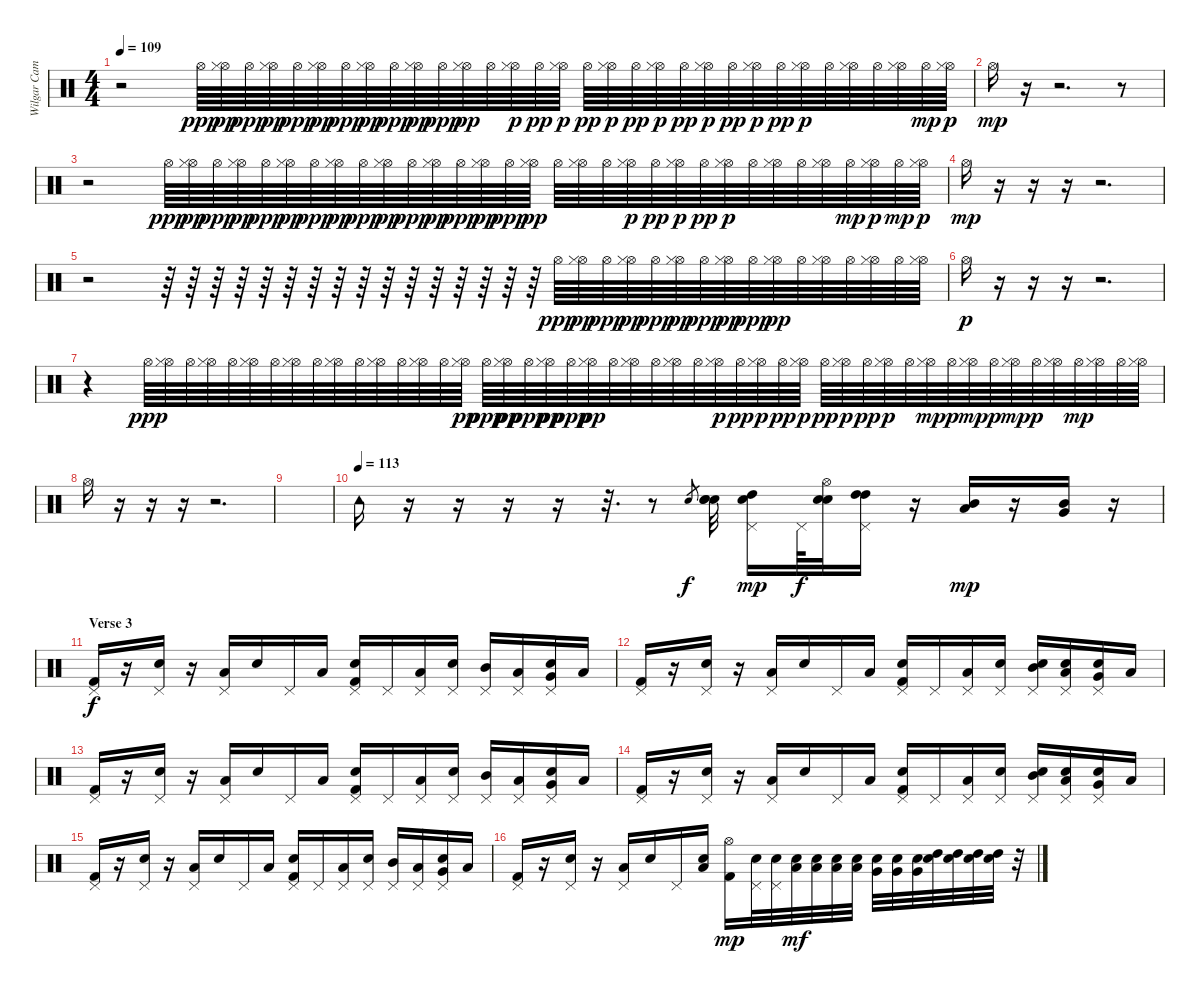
\track ("Wilgar Campbell" "Wilgar Cam") {instrument percussion}
\staff {score}
\articulation defaults
\ts (4 4)
\tempo 109
\clef neutral
\ks c
r.2{dy mf} "Hi-Hat (open)".64{dy ppp} ("Hi-Hat (open)" "Hi-Hat (closed)").64{dy pp} "Hi-Hat (open)".64{dy ppp} ("Hi-Hat (open)" "Hi-Hat (closed)").64{dy pp} "Hi-Hat (open)".64{dy ppp} ("Hi-Hat (open)" "Hi-Hat (closed)").64{dy pp} "Hi-Hat (open)".64{dy ppp} ("Hi-Hat (open)" "Hi-Hat (closed)").64{dy pp} "Hi-Hat (open)".64{dy ppp} ("Hi-Hat (open)" "Hi-Hat (closed)").64{dy pp} "Hi-Hat (open)".64{dy ppp} ("Hi-Hat (open)" "Hi-Hat (closed)").64{dy pp} "Hi-Hat (open)".64 ("Hi-Hat (open)" "Hi-Hat (closed)").64{dy p} "Hi-Hat (open)".64{dy pp} ("Hi-Hat (open)" "Hi-Hat (closed)").64{dy p} "Hi-Hat (open)".64{dy pp} ("Hi-Hat (open)" "Hi-Hat (closed)").64{dy p} "Hi-Hat (open)".64{dy pp} ("Hi-Hat (open)" "Hi-Hat (closed)").64{dy p} "Hi-Hat (open)".64{dy pp} ("Hi-Hat (open)" "Hi-Hat (closed)").64{dy p} "Hi-Hat (open)".64{dy pp} ("Hi-Hat (open)" "Hi-Hat (closed)").64{dy p} "Hi-Hat (open)".64{dy pp} ("Hi-Hat (open)" "Hi-Hat (closed)").64{dy p} "Hi-Hat (open)".64 ("Hi-Hat (open)" "Hi-Hat (closed)").64 "Hi-Hat (open)".64 ("Hi-Hat (open)" "Hi-Hat (closed)").64 "Hi-Hat (open)".64{dy mp} ("Hi-Hat (open)" "Hi-Hat (closed)").64{dy p} |
"Hi-Hat (open)".16{dy mp} r.16 r.2{d} r.8 |
r.2 "Hi-Hat (open)".64{dy ppp} ("Hi-Hat (open)" "Hi-Hat (closed)").64{dy pp} "Hi-Hat (open)".64{dy ppp} ("Hi-Hat (open)" "Hi-Hat (closed)").64{dy pp} "Hi-Hat (open)".64{dy ppp} ("Hi-Hat (open)" "Hi-Hat (closed)").64{dy pp} "Hi-Hat (open)".64{dy ppp} ("Hi-Hat (open)" "Hi-Hat (closed)").64{dy pp} "Hi-Hat (open)".64{dy ppp} ("Hi-Hat (open)" "Hi-Hat (closed)").64{dy pp} "Hi-Hat (open)".64{dy ppp} ("Hi-Hat (open)" "Hi-Hat (closed)").64{dy pp} "Hi-Hat (open)".64{dy ppp} ("Hi-Hat (open)" "Hi-Hat (closed)").64{dy pp} "Hi-Hat (open)".64{dy ppp} ("Hi-Hat (open)" "Hi-Hat (closed)").64{dy pp} "Hi-Hat (open)".64 ("Hi-Hat (open)" "Hi-Hat (closed)").64 "Hi-Hat (open)".64 ("Hi-Hat (open)" "Hi-Hat (closed)").64{dy p} "Hi-Hat (open)".64{dy pp} ("Hi-Hat (open)" "Hi-Hat (closed)").64{dy p} "Hi-Hat (open)".64{dy pp} ("Hi-Hat (open)" "Hi-Hat (closed)").64{dy p} "Hi-Hat (open)".64 ("Hi-Hat (open)" "Hi-Hat (closed)").64 "Hi-Hat (open)".64 ("Hi-Hat (open)" "Hi-Hat (closed)").64 "Hi-Hat (open)".64{dy mp} ("Hi-Hat (open)" "Hi-Hat (closed)").64{dy p} "Hi-Hat (open)".64{dy mp} ("Hi-Hat (open)" "Hi-Hat (closed)").64{dy p} |
"Hi-Hat (open)".16{dy mp} r.16 r.16 r.16 r.2{d} |
r.2 r.64 r.64 r.64 r.64 r.64 r.64 r.64 r.64 r.64 r.64 r.64 r.64 r.64 r.64 r.64 r.64 "Hi-Hat (open)".64{dy ppp} ("Hi-Hat (open)" "Hi-Hat (closed)").64{dy pp} "Hi-Hat (open)".64{dy ppp} ("Hi-Hat (open)" "Hi-Hat (closed)").64{dy pp} "Hi-Hat (open)".64{dy ppp} ("Hi-Hat (open)" "Hi-Hat (closed)").64{dy pp} "Hi-Hat (open)".64{dy ppp} ("Hi-Hat (open)" "Hi-Hat (closed)").64{dy pp} "Hi-Hat (open)".64{dy ppp} ("Hi-Hat (open)" "Hi-Hat (closed)").64{dy pp} "Hi-Hat (open)".64 ("Hi-Hat (open)" "Hi-Hat (closed)").64 "Hi-Hat (open)".64 ("Hi-Hat (open)" "Hi-Hat (closed)").64 "Hi-Hat (open)".64 ("Hi-Hat (open)" "Hi-Hat (closed)").64 |
"Hi-Hat (open)".16{dy p} r.16 r.16 r.16 r.2{d} |
r.4 "Hi-Hat (open)".64{dy ppp} ("Hi-Hat (open)" "Hi-Hat (closed)").64 "Hi-Hat (open)".64 ("Hi-Hat (open)" "Hi-Hat (closed)").64 "Hi-Hat (open)".64 ("Hi-Hat (open)" "Hi-Hat (closed)").64 "Hi-Hat (open)".64 ("Hi-Hat (open)" "Hi-Hat (closed)").64 "Hi-Hat (open)".64 ("Hi-Hat (open)" "Hi-Hat (closed)").64 "Hi-Hat (open)".64 ("Hi-Hat (open)" "Hi-Hat (closed)").64 "Hi-Hat (open)".64 ("Hi-Hat (open)" "Hi-Hat (closed)").64 "Hi-Hat (open)".64 ("Hi-Hat (open)" "Hi-Hat (closed)").64{dy pp} "Hi-Hat (open)".64{dy ppp} ("Hi-Hat (open)" "Hi-Hat (closed)").64{dy pp} "Hi-Hat (open)".64{dy ppp} ("Hi-Hat (open)" "Hi-Hat (closed)").64{dy pp} "Hi-Hat (open)".64{dy ppp} ("Hi-Hat (open)" "Hi-Hat (closed)").64{dy pp} "Hi-Hat (open)".64 ("Hi-Hat (open)" "Hi-Hat (closed)").64 "Hi-Hat (open)".64 ("Hi-Hat (open)" "Hi-Hat (closed)").64 "Hi-Hat (open)".64 ("Hi-Hat (open)" "Hi-Hat (closed)").64{dy p} "Hi-Hat (open)".64{dy pp} ("Hi-Hat (open)" "Hi-Hat (closed)").64{dy p} "Hi-Hat (open)".64{dy pp} ("Hi-Hat (open)" "Hi-Hat (closed)").64{dy p} "Hi-Hat (open)".64{dy pp} ("Hi-Hat (open)" "Hi-Hat (closed)").64{dy p} "Hi-Hat (open)".64{dy pp} ("Hi-Hat (open)" "Hi-Hat (closed)").64{dy p} "Hi-Hat (open)".64 ("Hi-Hat (open)" "Hi-Hat (closed)").64{dy mp} "Hi-Hat (open)".64{dy p} ("Hi-Hat (open)" "Hi-Hat (closed)").64{dy mp} "Hi-Hat (open)".64{dy p} ("Hi-Hat (open)" "Hi-Hat (closed)").64{dy mp} "Hi-Hat (open)".64{dy p} ("Hi-Hat (open)" "Hi-Hat (closed)").64 "Hi-Hat (open)".64{dy mp} ("Hi-Hat (open)" "Hi-Hat (closed)").64 "Hi-Hat (open)".64 ("Hi-Hat (open)" "Hi-Hat (closed)").64 |
"Hi-Hat (open)".16 r.16 r.16 r.16 r.2{d} |
|
\tempo (113)
"Tambourine (hit)".16 r.16 r.16 r.16 r.16 r.32{d} r.8 "Snare (hit) 2".8{gr dy f} ("Snare (hit) 2" "Snare (hit) 2" "Snare (hit) 2").32 ("Snare (hit) 2" "High Tom (hit)" "Pedal Hi-Hat (hit)").16{dy mp} "Pedal Hi-Hat (hit)".64{dy f} ("Snare (hit) 2" "Snare (hit) 2" "Hi-Hat (open)").32 ("High Tom (hit)" "High Tom (hit)" "Pedal Hi-Hat (hit)").16 r.16 ("Low Tom (hit)" "Mid Tom (hit)").16{dy mp} r.16 ("Very Low Tom (hit)" "Mid Tom (hit)").16 r.16 |
\section ("" "Verse 3")
("Pedal Hi-Hat (hit)" "Kick (hit) 2").16{dy f} r.16 ("Snare (hit) 2" "Pedal Hi-Hat (hit)").16 r.16 ("Low Tom (hit)" "Pedal Hi-Hat (hit)").16 "Snare (hit) 2".16 "Pedal Hi-Hat (hit)".16 "Low Tom (hit)".16 ("Snare (hit) 2" "Pedal Hi-Hat (hit)" "Kick (hit) 2").16 "Pedal Hi-Hat (hit)".16 ("Low Tom (hit)" "Pedal Hi-Hat (hit)").16 ("Snare (hit) 2" "Pedal Hi-Hat (hit)").16 ("Mid Tom (hit)" "Pedal Hi-Hat (hit)").16 ("Low Tom (hit)" "Pedal Hi-Hat (hit)").16 ("Very Low Tom (hit)" "Snare (hit) 2" "Pedal Hi-Hat (hit)").16 "Low Tom (hit)".16 |
("Pedal Hi-Hat (hit)" "Kick (hit) 2").16 r.16 ("Snare (hit) 2" "Pedal Hi-Hat (hit)").16 r.16 ("Low Tom (hit)" "Pedal Hi-Hat (hit)").16 "Snare (hit) 2".16 "Pedal Hi-Hat (hit)".16 "Low Tom (hit)".16 ("Snare (hit) 2" "Pedal Hi-Hat (hit)" "Kick (hit) 2").16 "Pedal Hi-Hat (hit)".16 ("Low Tom (hit)" "Pedal Hi-Hat (hit)").16 ("Snare (hit) 2" "Pedal Hi-Hat (hit)").16 ("Mid Tom (hit)" "Electric Snare (hit)" "Pedal Hi-Hat (hit)").16 ("Low Tom (hit)" "Electric Snare (hit)" "Pedal Hi-Hat (hit)").16 ("Very Low Tom (hit)" "Snare (hit) 2" "Pedal Hi-Hat (hit)").16 "Low Tom (hit)".16 |
("Pedal Hi-Hat (hit)" "Kick (hit) 2").16 r.16 ("Snare (hit) 2" "Pedal Hi-Hat (hit)").16 r.16 ("Low Tom (hit)" "Pedal Hi-Hat (hit)").16 "Snare (hit) 2".16 "Pedal Hi-Hat (hit)".16 "Low Tom (hit)".16 ("Snare (hit) 2" "Pedal Hi-Hat (hit)" "Kick (hit) 2").16 "Pedal Hi-Hat (hit)".16 ("Low Tom (hit)" "Pedal Hi-Hat (hit)").16 ("Snare (hit) 2" "Pedal Hi-Hat (hit)").16 ("Mid Tom (hit)" "Pedal Hi-Hat (hit)").16 ("Low Tom (hit)" "Pedal Hi-Hat (hit)").16 ("Very Low Tom (hit)" "Snare (hit) 2" "Pedal Hi-Hat (hit)").16 "Low Tom (hit)".16 |
("Pedal Hi-Hat (hit)" "Kick (hit) 2").16 r.16 ("Snare (hit) 2" "Pedal Hi-Hat (hit)").16 r.16 ("Low Tom (hit)" "Pedal Hi-Hat (hit)").16 "Snare (hit) 2".16 "Pedal Hi-Hat (hit)".16 "Low Tom (hit)".16 ("Snare (hit) 2" "Pedal Hi-Hat (hit)" "Kick (hit) 2").16 "Pedal Hi-Hat (hit)".16 ("Low Tom (hit)" "Pedal Hi-Hat (hit)").16 ("Snare (hit) 2" "Pedal Hi-Hat (hit)").16 ("Mid Tom (hit)" "Electric Snare (hit)" "Pedal Hi-Hat (hit)").16 ("Low Tom (hit)" "Electric Snare (hit)" "Pedal Hi-Hat (hit)").16 ("Very Low Tom (hit)" "Snare (hit) 2" "Pedal Hi-Hat (hit)").16 "Low Tom (hit)".16 |
("Pedal Hi-Hat (hit)" "Kick (hit) 2").16 r.16 ("Snare (hit) 2" "Pedal Hi-Hat (hit)").16 r.16 ("Low Tom (hit)" "Pedal Hi-Hat (hit)").16 "Snare (hit) 2".16 "Pedal Hi-Hat (hit)".16 "Low Tom (hit)".16 ("Snare (hit) 2" "Pedal Hi-Hat (hit)" "Kick (hit) 2").16 "Pedal Hi-Hat (hit)".16 ("Low Tom (hit)" "Pedal Hi-Hat (hit)").16 ("Snare (hit) 2" "Pedal Hi-Hat (hit)").16 ("Mid Tom (hit)" "Pedal Hi-Hat (hit)").16 ("Low Tom (hit)" "Pedal Hi-Hat (hit)").16 ("Very Low Tom (hit)" "Snare (hit) 2" "Pedal Hi-Hat (hit)").16 "Low Tom (hit)".16 |
("Pedal Hi-Hat (hit)" "Kick (hit) 2").16 r.16 ("Snare (hit) 2" "Pedal Hi-Hat (hit)").16 r.16 ("Low Tom (hit)" "Pedal Hi-Hat (hit)").16 "Snare (hit) 2".16 "Pedal Hi-Hat (hit)".16 ("Low Tom (hit)" "Snare (hit) 2").16 ("Hi-Hat (open)" "Kick (hit) 2").16{dy mp} ("Electric Snare (hit)" "Pedal Hi-Hat (hit)").32 ("Electric Snare (hit)" "Pedal Hi-Hat (hit)").32 ("Snare (hit) 2" "Low Tom (hit)").32{dy mf} ("Snare (hit) 2" "Low Tom (hit)").32 ("Snare (hit) 2" "Low Tom (hit)").32 ("Snare (hit) 2" "Low Tom (hit)").32 ("Electric Snare (hit)" "Very Low Tom (hit)").32 ("Electric Snare (hit)" "Very Low Tom (hit)").32 ("Electric Snare (hit)" "Very Low Tom (hit)").32 ("Snare (hit) 2" "High Tom (hit)").32 ("Snare (hit) 2" "High Tom (hit)").32 ("Snare (hit) 2" "High Tom (hit)").32 ("Snare (hit) 2" "High Tom (hit)").32 r.32
